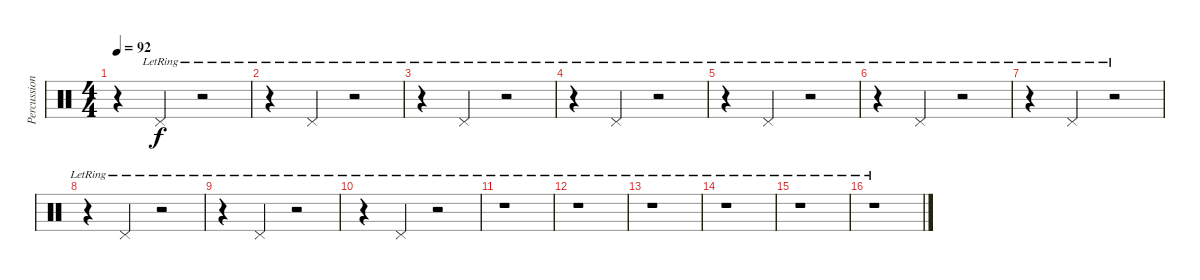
\track ("Percussion" "Percussion") {instrument percussion}
\staff {score}
\articulation defaults
\ts (4 4)
\tempo 92
\clef neutral
\ks c
r.4{dy f} "Pedal Hi-Hat (hit)"{lr}.4 r.2 |
r.4 "Pedal Hi-Hat (hit)"{lr}.4 r.2 |
r.4 "Pedal Hi-Hat (hit)"{lr}.4 r.2 |
r.4 "Pedal Hi-Hat (hit)"{lr}.4 r.2 |
r.4 "Pedal Hi-Hat (hit)"{lr}.4 r.2 |
r.4 "Pedal Hi-Hat (hit)"{lr}.4 r.2 |
r.4 "Pedal Hi-Hat (hit)"{lr}.4 r.2 |
r.4 "Pedal Hi-Hat (hit)"{lr}.4 r.2 |
r.4 "Pedal Hi-Hat (hit)"{lr}.4 r.2 |
r.4 "Pedal Hi-Hat (hit)"{lr}.4 r.2 |
r.1 |
r.1 |
r.1 |
r.1 |
r.1 |
r.1
